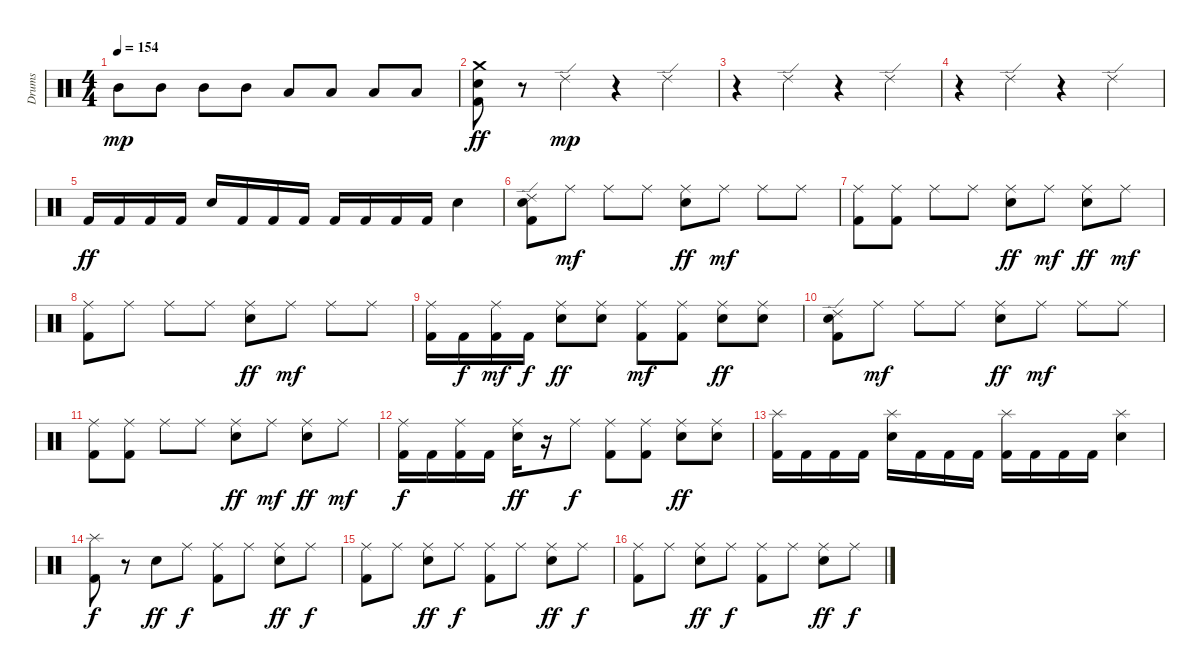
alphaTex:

\track ("Drums" "Drums") {instrument percussion}
\staff {score}
\articulation defaults
\ts (4 4)
\tempo 154
\clef neutral
\ks c "Mid Tom (hit)".8{dy mp} "Mid Tom (hit)".8 "Mid Tom (hit)".8 "Mid Tom (hit)".8 "Low Tom (hit)".8 "Low Tom (hit)".8 "Low Tom (hit)".8 "Low Tom (hit)".8
|
("Crash medium (hit)" "Snare (hit) 2" "Kick (hit) 2").8{dy ff} r.8 "Ride (edge) 2".4{dy mp} r.4 "Ride (edge) 2".4 |
r.4 "Ride (edge) 2".4 r.4 "Ride (edge) 2".4 |
r.4 "Ride (edge) 2".4 r.4 "Ride (edge) 2".4 |
"Kick (hit) 2".16{dy ff} "Kick (hit) 2".16 "Kick (hit) 2".16 "Kick (hit) 2".16 "Snare (hit) 2".16 "Kick (hit) 2".16 "Kick (hit) 2".16 "Kick (hit) 2".16 "Kick (hit) 2".16 "Kick (hit) 2".16 "Kick (hit) 2".16 "Kick (hit) 2".16 "Snare (hit) 2".4 |
("Ride (edge) 2" "Snare (hit) 2" "Kick (hit) 2").8 "Ride (middle)".8{dy mf} "Ride (middle)".8 "Ride (middle)".8 ("Ride (middle)" "Snare (hit) 2").8{dy ff} "Ride (middle)".8{dy mf} "Ride (middle)".8 "Ride (middle)".8 |
("Ride (middle)" "Kick (hit) 2").8 ("Ride (middle)" "Kick (hit) 2").8 "Ride (middle)".8 "Ride (middle)".8 ("Ride (middle)" "Snare (hit) 2").8{dy ff} "Ride (middle)".8{dy mf} ("Ride (middle)" "Snare (hit) 2").8{dy ff} "Ride (middle)".8{dy mf} |
("Ride (middle)" "Kick (hit) 2").8 "Ride (middle)".8 "Ride (middle)".8 "Ride (middle)".8 ("Ride (middle)" "Snare (hit) 2").8{dy ff} "Ride (middle)".8{dy mf} "Ride (middle)".8 "Ride (middle)".8 |
("Ride (middle)" "Kick (hit) 2").16 "Kick (hit) 2".16{dy f} ("Ride (middle)" "Kick (hit) 2").16{dy mf} "Kick (hit) 2".16{dy f} ("Ride (middle)" "Snare (hit) 2").8{dy ff} ("Ride (middle)" "Snare (hit) 2").8 ("Ride (middle)" "Kick (hit) 2").8{dy mf} ("Ride (middle)" "Kick (hit) 2").8 ("Ride (middle)" "Snare (hit) 2").8{dy ff} ("Ride (middle)" "Snare (hit) 2").8 |
("Ride (edge) 2" "Snare (hit) 2" "Kick (hit) 2").8 "Ride (middle)".8{dy mf} "Ride (middle)".8 "Ride (middle)".8 ("Ride (middle)" "Snare (hit) 2").8{dy ff} "Ride (middle)".8{dy mf} "Ride (middle)".8 "Ride (middle)".8 |
("Ride (middle)" "Kick (hit) 2").8 ("Ride (middle)" "Kick (hit) 2").8 "Ride (middle)".8 "Ride (middle)".8 ("Ride (middle)" "Snare (hit) 2").8{dy ff} "Ride (middle)".8{dy mf} ("Ride (middle)" "Snare (hit) 2").8{dy ff} "Ride (middle)".8{dy mf} |
("Ride (middle)" "Kick (hit) 2").16{dy f} "Kick (hit) 2".16 ("Ride (middle)" "Kick (hit) 2").16 "Kick (hit) 2".16 ("Ride (middle)" "Snare (hit) 2").16{dy ff} r.16 "Ride (middle)".8{dy f} ("Ride (middle)" "Kick (hit) 2").8 ("Ride (middle)" "Kick (hit) 2").8 ("Ride (middle)" "Snare (hit) 2").8{dy ff} ("Ride (middle)" "Snare (hit) 2").8 |
("Splash (hit)" "Kick (hit) 2").16 "Kick (hit) 2".16 "Kick (hit) 2".16 "Kick (hit) 2".16 ("Splash (hit)" "Snare (hit) 2").16 "Kick (hit) 2".16 "Kick (hit) 2".16 "Kick (hit) 2".16 ("Splash (hit)" "Kick (hit) 2").16 "Kick (hit) 2".16 "Kick (hit) 2".16 "Kick (hit) 2".16 ("Splash (hit)" "Snare (hit) 2").4 |
("Splash (hit)" "Kick (hit) 2").8{dy f} r.8 "Snare (hit) 2".8{dy ff} "Ride (middle)".8{dy f} ("Ride (middle)" "Kick (hit) 2").8 "Ride (middle)".8 ("Ride (middle)" "Snare (hit) 2").8{dy ff} "Ride (middle)".8{dy f} |
("Ride (middle)" "Kick (hit) 2").8 "Ride (middle)".8 ("Ride (middle)" "Snare (hit) 2").8{dy ff} "Ride (middle)".8{dy f} ("Ride (middle)" "Kick (hit) 2").8 "Ride (middle)".8 ("Ride (middle)" "Snare (hit) 2").8{dy ff} "Ride (middle)".8{dy f} |
("Ride (middle)" "Kick (hit) 2").8 "Ride (middle)".8 ("Ride (middle)" "Snare (hit) 2").8{dy ff} "Ride (middle)".8{dy f} ("Ride (middle)" "Kick (hit) 2").8 "Ride (middle)".8 ("Ride (middle)" "Snare (hit) 2").8{dy ff} "Ride (middle)".8{dy f}
